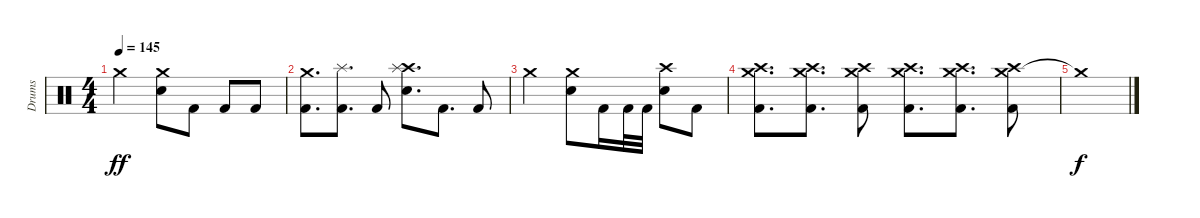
\track ("Drums" "Drums") {instrument percussion}
\staff {score}
\articulation defaults
\ts (4 4)
\tempo 145
\clef neutral
\ks c "Crash medium (hit)".2{dy ff}
("Crash medium (hit)" "Electric Snare (hit)").8 "Kick (hit) 2".8 "Kick (hit) 2".8 "Kick (hit) 2".8 |
("Crash medium (hit)" "Kick (hit) 2").8{d} ("Splash (hit)" "Kick (hit) 2").8{d} "Kick (hit) 2".8 ("Crash high (hit)" "Splash (hit)" "Electric Snare (hit)").8{d} "Kick (hit) 2".8{d} "Kick (hit) 2".8 |
"Crash medium (hit)".2 ("Crash medium (hit)" "Electric Snare (hit)").8 "Kick (hit) 2".16 "Kick (hit) 2".32 "Kick (hit) 2".32 ("Crash high (hit)" "Electric Snare (hit)").8 "Kick (hit) 2".8 |
("Crash medium (hit)" "Crash high (hit)" "Kick (hit) 2").8{d} ("Crash medium (hit)" "Crash high (hit)" "Kick (hit) 2").8{d} ("Crash medium (hit)" "Crash high (hit)" "Kick (hit) 2").8 ("Crash medium (hit)" "Crash high (hit)" "Kick (hit) 2").8{d} ("Crash medium (hit)" "Crash high (hit)" "Kick (hit) 2").8{d} ("Crash medium (hit)" "Crash high (hit)" "Kick (hit) 2").8 |
"Crash medium (hit)"{t}.1{dy f}
